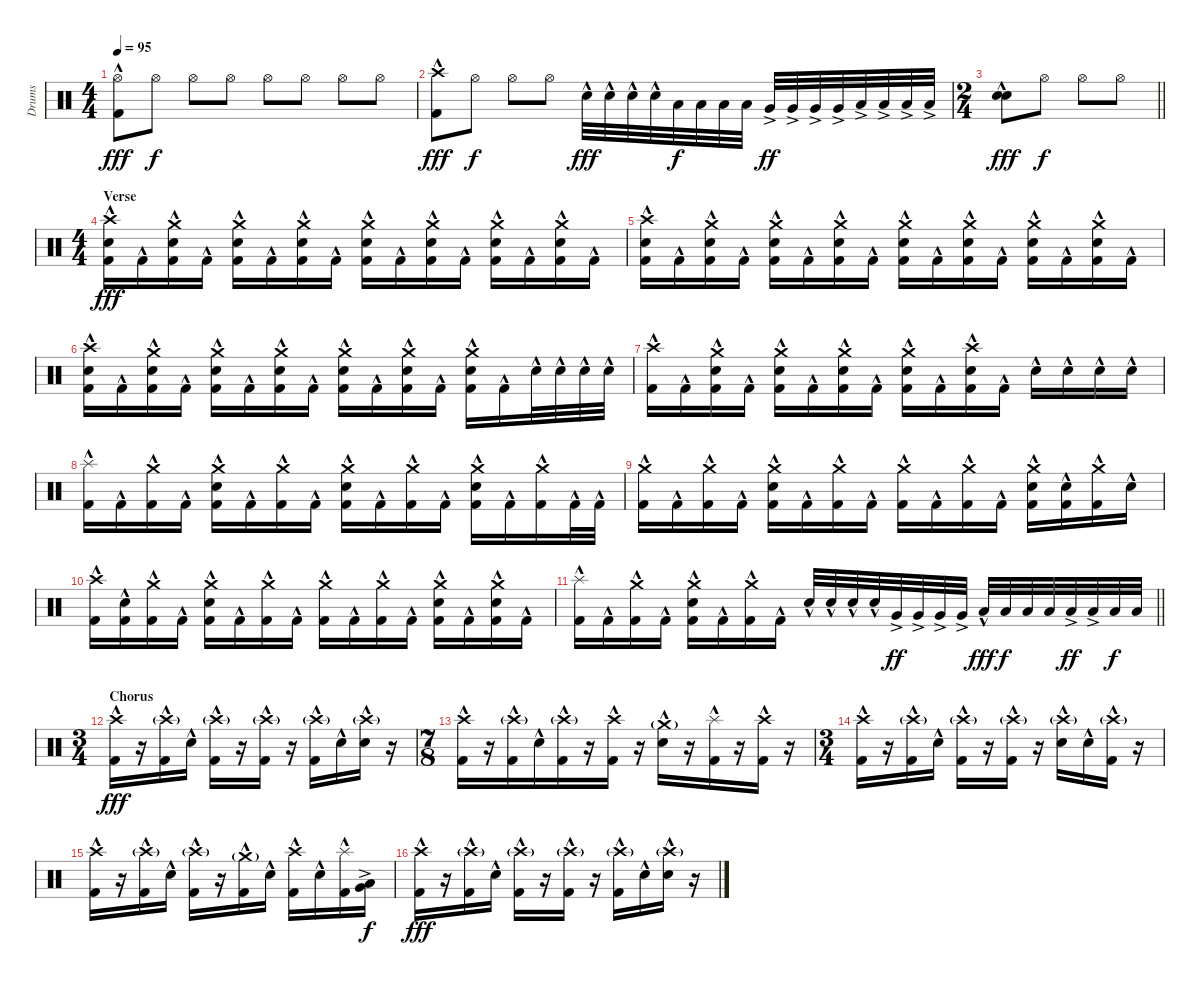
\track ("Drums" "Drums") {instrument percussion}
\staff {score}
\articulation defaults
\ts (4 4)
\tempo 95
\clef neutral
\ks c
("Hi-Hat (open)" "Kick (hit) 2"{hac}).8{dy fff} "Hi-Hat (open)".8{dy f} "Hi-Hat (open)".8 "Hi-Hat (open)".8 "Hi-Hat (open)".8 "Hi-Hat (open)".8 "Hi-Hat (open)".8 "Hi-Hat (open)".8 |
("Crash high (hit)" "Kick (hit) 2"{hac}).8{dy fff} "Hi-Hat (open)".8{dy f} "Hi-Hat (open)".8 "Hi-Hat (open)".8 "Electric Snare (hit)"{hac}.32{dy fff} "Electric Snare (hit)"{hac}.32 "Electric Snare (hit)"{hac}.32 "Electric Snare (hit)"{hac}.32 "Low Tom (hit)".32{dy f} "Low Tom (hit)".32 "Low Tom (hit)".32 "Low Tom (hit)".32 "Very Low Tom (hit)"{ac}.32{dy ff} "Very Low Tom (hit)"{ac}.32 "Very Low Tom (hit)"{ac}.32 "Very Low Tom (hit)"{ac}.32 "Low Floor Tom (hit)"{ac}.32 "Low Floor Tom (hit)"{ac}.32 "Low Floor Tom (hit)"{ac}.32 "Low Floor Tom (hit)"{ac}.32 |
\ts (2 4)
\barLineRight lightlight
("Electric Snare (hit)"{hac} "Electric Snare (hit)"{hac}).8{bd 60 dy fff} "Hi-Hat (open)".8{dy f} "Hi-Hat (open)".8 "Hi-Hat (open)".8 |
\ts (4 4)
\section ("" "Verse")
("Crash high (hit)" "Electric Snare (hit)"{hac} "Kick (hit) 2"{hac}).16{dy fff} "Kick (hit) 2"{hac}.16 ("Crash medium (hit)" "Electric Snare (hit)"{hac} "Kick (hit) 2"{hac}).16 "Kick (hit) 2"{hac}.16 ("Crash medium (hit)" "Electric Snare (hit)"{hac} "Kick (hit) 2"{hac}).16 "Kick (hit) 2"{hac}.16 ("Crash medium (hit)" "Electric Snare (hit)"{hac} "Kick (hit) 2"{hac}).16 "Kick (hit) 2"{hac}.16 ("Crash medium (hit)" "Electric Snare (hit)"{hac} "Kick (hit) 2"{hac}).16 "Kick (hit) 2"{hac}.16 ("Crash medium (hit)" "Electric Snare (hit)"{hac} "Kick (hit) 2"{hac}).16 "Kick (hit) 2"{hac}.16 ("Crash medium (hit)" "Electric Snare (hit)"{hac} "Kick (hit) 2"{hac}).16 "Kick (hit) 2"{hac}.16 ("Crash medium (hit)" "Electric Snare (hit)"{hac} "Kick (hit) 2"{hac}).16 "Kick (hit) 2"{hac}.16 |
("Crash high (hit)" "Electric Snare (hit)"{hac} "Kick (hit) 2"{hac}).16 "Kick (hit) 2"{hac}.16 ("Crash medium (hit)" "Electric Snare (hit)"{hac} "Kick (hit) 2"{hac}).16 "Kick (hit) 2"{hac}.16 ("Crash medium (hit)" "Electric Snare (hit)"{hac} "Kick (hit) 2"{hac}).16 "Kick (hit) 2"{hac}.16 ("Crash medium (hit)" "Electric Snare (hit)"{hac} "Kick (hit) 2"{hac}).16 "Kick (hit) 2"{hac}.16 ("Crash medium (hit)" "Electric Snare (hit)"{hac} "Kick (hit) 2"{hac}).16 "Kick (hit) 2"{hac}.16 ("Crash medium (hit)" "Electric Snare (hit)"{hac} "Kick (hit) 2"{hac}).16 "Kick (hit) 2"{hac}.16 ("Crash medium (hit)" "Electric Snare (hit)"{hac} "Kick (hit) 2"{hac}).16 "Kick (hit) 2"{hac}.16 ("Crash medium (hit)" "Electric Snare (hit)"{hac} "Kick (hit) 2"{hac}).16 "Kick (hit) 2"{hac}.16 |
("Crash high (hit)" "Electric Snare (hit)"{hac} "Kick (hit) 2"{hac}).16 "Kick (hit) 2"{hac}.16 ("Crash medium (hit)" "Electric Snare (hit)"{hac} "Kick (hit) 2"{hac}).16 "Kick (hit) 2"{hac}.16 ("Crash medium (hit)" "Electric Snare (hit)"{hac} "Kick (hit) 2"{hac}).16 "Kick (hit) 2"{hac}.16 ("Crash medium (hit)" "Electric Snare (hit)"{hac} "Kick (hit) 2"{hac}).16 "Kick (hit) 2"{hac}.16 ("Crash medium (hit)" "Electric Snare (hit)"{hac} "Kick (hit) 2"{hac}).16 "Kick (hit) 2"{hac}.16 ("Crash medium (hit)" "Electric Snare (hit)"{hac} "Kick (hit) 2"{hac}).16 "Kick (hit) 2"{hac}.16 ("Crash medium (hit)" "Electric Snare (hit)"{hac} "Kick (hit) 2"{hac}).16 "Kick (hit) 2"{hac}.16 "Electric Snare (hit)"{hac}.32 "Electric Snare (hit)"{hac}.32 "Electric Snare (hit)"{hac}.32 "Electric Snare (hit)"{hac}.32 |
("Crash high (hit)" "Kick (hit) 2"{hac}).16 "Kick (hit) 2"{hac}.16 ("Crash medium (hit)" "Electric Snare (hit)"{hac} "Kick (hit) 2"{hac}).16 "Kick (hit) 2"{hac}.16 ("Crash medium (hit)" "Electric Snare (hit)"{hac} "Kick (hit) 2"{hac}).16 "Kick (hit) 2"{hac}.16 ("Crash medium (hit)" "Electric Snare (hit)"{hac} "Kick (hit) 2"{hac}).16 "Kick (hit) 2"{hac}.16 ("Crash medium (hit)" "Electric Snare (hit)"{hac} "Kick (hit) 2"{hac}).16 "Kick (hit) 2"{hac}.16 ("Crash high (hit)" "Electric Snare (hit)"{hac} "Kick (hit) 2"{hac}).16 "Kick (hit) 2"{hac}.16 "Electric Snare (hit)"{hac}.16 "Electric Snare (hit)"{hac}.16 "Electric Snare (hit)"{hac}.16 "Electric Snare (hit)"{hac}.16 |
("Splash (hit)"{hac} "Kick (hit) 2"{hac}).16 "Kick (hit) 2"{hac}.16 ("Crash medium (hit)" "Kick (hit) 2"{hac}).16 "Kick (hit) 2"{hac}.16 ("Crash medium (hit)" "Electric Snare (hit)"{hac} "Kick (hit) 2"{hac}).16 "Kick (hit) 2"{hac}.16 ("Crash medium (hit)" "Kick (hit) 2"{hac}).16 "Kick (hit) 2"{hac}.16 ("Crash medium (hit)" "Electric Snare (hit)"{hac} "Kick (hit) 2"{hac}).16 "Kick (hit) 2"{hac}.16 ("Crash medium (hit)" "Kick (hit) 2"{hac}).16 "Kick (hit) 2"{hac}.16 ("Crash medium (hit)" "Electric Snare (hit)"{hac} "Kick (hit) 2"{hac}).16 "Kick (hit) 2"{hac}.16 ("Crash medium (hit)" "Kick (hit) 2"{hac}).16 "Kick (hit) 2"{hac}.32 "Kick (hit) 2"{hac}.32 |
("Crash medium (hit)" "Kick (hit) 2"{hac}).16 "Kick (hit) 2"{hac}.16 ("Crash medium (hit)" "Kick (hit) 2"{hac}).16 "Kick (hit) 2"{hac}.16 ("Crash medium (hit)" "Electric Snare (hit)"{hac} "Kick (hit) 2"{hac}).16 "Kick (hit) 2"{hac}.16 ("Crash medium (hit)" "Kick (hit) 2"{hac}).16 "Kick (hit) 2"{hac}.16 ("Crash medium (hit)" "Kick (hit) 2"{hac}).16 "Kick (hit) 2"{hac}.16 ("Crash medium (hit)" "Kick (hit) 2"{hac}).16 "Kick (hit) 2"{hac}.16 ("Crash medium (hit)" "Electric Snare (hit)"{hac} "Kick (hit) 2"{hac}).16 ("Electric Snare (hit)"{hac} "Kick (hit) 2"{hac}).16 ("Crash medium (hit)" "Kick (hit) 2"{hac}).16 "Electric Snare (hit)"{hac}.16 |
("Crash high (hit)" "Kick (hit) 2"{hac}).16 ("Electric Snare (hit)"{hac} "Kick (hit) 2"{hac}).16 ("Crash medium (hit)" "Kick (hit) 2"{hac}).16 "Kick (hit) 2"{hac}.16 ("Crash medium (hit)" "Electric Snare (hit)"{hac} "Kick (hit) 2"{hac}).16 "Kick (hit) 2"{hac}.16 ("Crash medium (hit)" "Kick (hit) 2"{hac}).16 "Kick (hit) 2"{hac}.16 ("Crash medium (hit)" "Kick (hit) 2"{hac}).16 "Kick (hit) 2"{hac}.16 ("Crash medium (hit)" "Kick (hit) 2"{hac}).16 "Kick (hit) 2"{hac}.16 ("Crash medium (hit)" "Electric Snare (hit)"{hac} "Kick (hit) 2"{hac}).16 "Kick (hit) 2"{hac}.16 ("Crash medium (hit)" "Electric Snare (hit)"{hac} "Kick (hit) 2"{hac}).16 "Kick (hit) 2"{hac}.16 |
\barLineRight lightlight
("Splash (hit)"{hac} "Kick (hit) 2"{hac}).16 "Kick (hit) 2"{hac}.16 ("Crash medium (hit)" "Kick (hit) 2"{hac}).16 "Kick (hit) 2"{hac}.16 ("Crash medium (hit)" "Electric Snare (hit)"{hac} "Kick (hit) 2"{hac}).16 "Kick (hit) 2"{hac}.16 ("Crash medium (hit)" "Kick (hit) 2"{hac}).16 "Kick (hit) 2"{hac}.16 "Electric Snare (hit)"{hac}.32 "Electric Snare (hit)"{hac}.32 "Electric Snare (hit)"{hac}.32 "Electric Snare (hit)"{hac}.32 "Very Low Tom (hit)"{ac}.32{dy ff} "Very Low Tom (hit)"{ac}.32 "Very Low Tom (hit)"{ac}.32 "Very Low Tom (hit)"{ac}.32 "Low Tom (hit)"{hac}.32{dy fff} "Low Tom (hit)".32{dy f} "Low Tom (hit)".32 "Low Tom (hit)".32 "Low Floor Tom (hit)"{ac}.32{dy ff} "Low Floor Tom (hit)"{ac}.32 "Low Floor Tom (hit)".32{dy f} "Low Floor Tom (hit)".32 |
\ts (3 4)
\section ("" "Chorus")
("Crash high (hit)" "Kick (hit) 2"{hac}).16{dy fff} r.16 ("Crash high (hit)"{g} "Kick (hit) 2"{hac}).16 "Electric Snare (hit)"{hac}.16 ("Crash high (hit)"{g} "Kick (hit) 2"{hac}).16 r.16 ("Crash high (hit)"{g} "Kick (hit) 2"{hac}).16 r.16 ("Crash high (hit)"{g} "Kick (hit) 2"{hac}).16 "Electric Snare (hit)"{hac}.16 ("Crash high (hit)"{g} "Electric Snare (hit)"{hac}).16 r.16 |
\ts (7 8)
("Crash high (hit)" "Kick (hit) 2"{hac}).16 r.16 ("Crash high (hit)"{g} "Kick (hit) 2"{hac}).16 "Electric Snare (hit)"{hac}.16 ("Crash high (hit)"{g} "Kick (hit) 2"{hac}).16 r.16 ("Crash high (hit)" "Kick (hit) 2"{hac}).16 r.16 ("Crash medium (hit)"{g} "Electric Snare (hit)"{hac}).16 r.16 ("Splash (hit)"{hac} "Kick (hit) 2"{hac}).16 r.16 ("Crash high (hit)" "Kick (hit) 2"{hac}).16 r.16 |
\ts (3 4)
("Crash high (hit)" "Kick (hit) 2"{hac}).16 r.16 ("Crash high (hit)"{g} "Kick (hit) 2"{hac}).16 "Electric Snare (hit)"{hac}.16 ("Crash high (hit)"{g} "Kick (hit) 2"{hac}).16 r.16 ("Crash high (hit)"{g} "Kick (hit) 2"{hac}).16 r.16 ("Crash high (hit)"{g} "Electric Snare (hit)"{hac}).16 "Electric Snare (hit)"{hac}.16 ("Crash high (hit)"{g} "Kick (hit) 2"{hac}).16 r.16 |
("Crash high (hit)" "Kick (hit) 2"{hac}).16 r.16 ("Crash high (hit)"{g} "Kick (hit) 2"{hac}).16 "Electric Snare (hit)"{hac}.16 ("Crash high (hit)"{g} "Kick (hit) 2"{hac}).16 r.16 ("Crash medium (hit)"{g} "Kick (hit) 2"{hac}).16 "Electric Snare (hit)"{hac}.16 ("Crash high (hit)" "Kick (hit) 2"{hac}).16 "Electric Snare (hit)"{hac}.16 ("Splash (hit)"{hac} "Kick (hit) 2"{hac}).16 ("Very Low Tom (hit)"{ac} "Low Floor Tom (hit)"{ac}).16{bd 60 dy f} |
("Crash high (hit)" "Kick (hit) 2"{hac}).16{dy fff} r.16 ("Crash high (hit)"{g} "Kick (hit) 2"{hac}).16 "Electric Snare (hit)"{hac}.16 ("Crash high (hit)"{g} "Kick (hit) 2"{hac}).16 r.16 ("Crash high (hit)"{g} "Kick (hit) 2"{hac}).16 r.16 ("Crash high (hit)"{g} "Kick (hit) 2"{hac}).16 "Electric Snare (hit)"{hac}.16 ("Crash high (hit)"{g} "Electric Snare (hit)"{hac}).16 r.16
